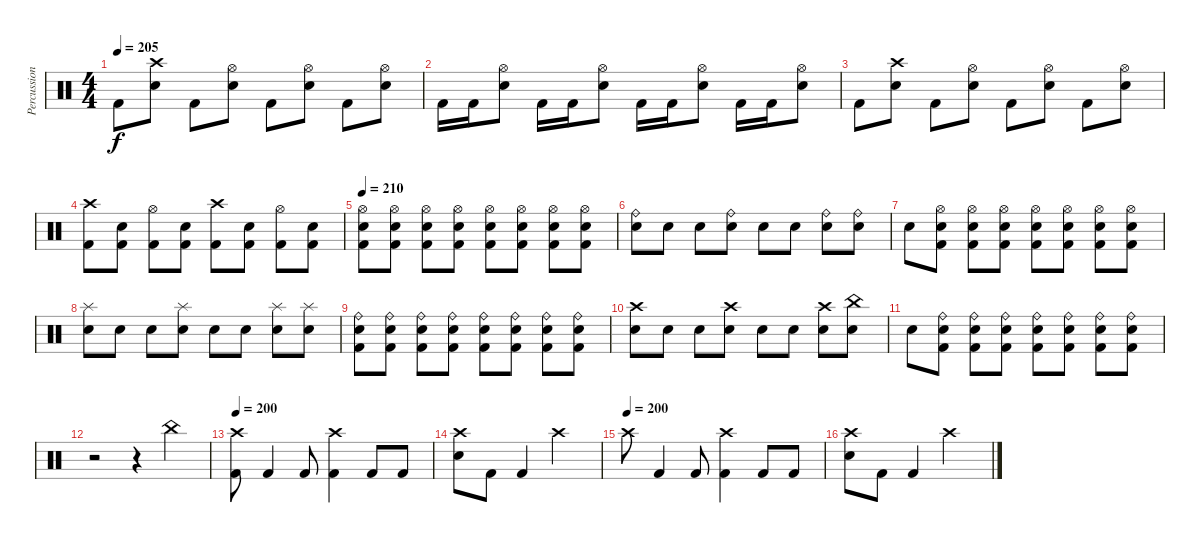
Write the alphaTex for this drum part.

\track ("Percussion" "Percussion") {instrument percussion}
\staff {score}
\articulation defaults
\ts (4 4)
\tempo 205
\clef neutral
\ks c "Kick (hit) 2".8{dy f}
("Crash high (hit)" "Electric Snare (hit)").8 "Kick (hit) 2".8 ("Hi-Hat (open)" "Electric Snare (hit)").8 "Kick (hit) 2".8 ("Hi-Hat (open)" "Electric Snare (hit)").8 "Kick (hit) 2".8 ("Hi-Hat (open)" "Electric Snare (hit)").8 |
"Kick (hit) 2".16 "Kick (hit) 2".16 ("Hi-Hat (open)" "Electric Snare (hit)").8 "Kick (hit) 2".16 "Kick (hit) 2".16 ("Hi-Hat (open)" "Electric Snare (hit)").8 "Kick (hit) 2".16 "Kick (hit) 2".16 ("Hi-Hat (open)" "Electric Snare (hit)").8 "Kick (hit) 2".16 "Kick (hit) 2".16 ("Hi-Hat (open)" "Electric Snare (hit)").8 |
"Kick (hit) 2".8 ("Crash high (hit)" "Electric Snare (hit)").8 "Kick (hit) 2".8 ("Hi-Hat (open)" "Electric Snare (hit)").8 "Kick (hit) 2".8 ("Hi-Hat (open)" "Electric Snare (hit)").8 "Kick (hit) 2".8 ("Hi-Hat (open)" "Electric Snare (hit)").8 |
("Crash high (hit)" "Kick (hit) 2").8 ("Electric Snare (hit)" "Kick (hit) 2").8 ("Hi-Hat (open)" "Kick (hit) 2").8 ("Electric Snare (hit)" "Kick (hit) 2").8 ("Crash high (hit)" "Kick (hit) 2").8 ("Electric Snare (hit)" "Kick (hit) 2").8 ("Hi-Hat (open)" "Kick (hit) 2").8 ("Electric Snare (hit)" "Kick (hit) 2").8 |
\tempo 210
("Hi-Hat (open)" "Electric Snare (hit)" "Kick (hit) 2").8 ("Hi-Hat (open)" "Electric Snare (hit)" "Kick (hit) 2").8 ("Hi-Hat (open)" "Electric Snare (hit)" "Kick (hit) 2").8 ("Hi-Hat (open)" "Electric Snare (hit)" "Kick (hit) 2").8 ("Hi-Hat (open)" "Electric Snare (hit)" "Kick (hit) 2").8 ("Hi-Hat (open)" "Electric Snare (hit)" "Kick (hit) 2").8 ("Hi-Hat (open)" "Electric Snare (hit)" "Kick (hit) 2").8 ("Hi-Hat (open)" "Electric Snare (hit)" "Kick (hit) 2").8 |
("Ride (bell)" "Electric Snare (hit)").8 "Electric Snare (hit)".8 "Electric Snare (hit)".8 ("Ride (bell)" "Electric Snare (hit)").8 "Electric Snare (hit)".8 "Electric Snare (hit)".8 ("Ride (bell)" "Electric Snare (hit)").8 ("Ride (bell)" "Electric Snare (hit)").8 |
"Electric Snare (hit)".8 ("Hi-Hat (open)" "Electric Snare (hit)" "Kick (hit) 2").8 ("Hi-Hat (open)" "Electric Snare (hit)" "Kick (hit) 2").8 ("Hi-Hat (open)" "Electric Snare (hit)" "Kick (hit) 2").8 ("Hi-Hat (open)" "Electric Snare (hit)" "Kick (hit) 2").8 ("Hi-Hat (open)" "Electric Snare (hit)" "Kick (hit) 2").8 ("Hi-Hat (open)" "Electric Snare (hit)" "Kick (hit) 2").8 ("Hi-Hat (open)" "Electric Snare (hit)" "Kick (hit) 2").8 |
("Splash (hit)" "Electric Snare (hit)").8 "Electric Snare (hit)".8 "Electric Snare (hit)".8 ("Splash (hit)" "Electric Snare (hit)").8 "Electric Snare (hit)".8 "Electric Snare (hit)".8 ("Splash (hit)" "Electric Snare (hit)").8 ("Splash (hit)" "Electric Snare (hit)").8 |
("Ride (bell)" "Electric Snare (hit)" "Kick (hit) 2").8 ("Ride (bell)" "Electric Snare (hit)" "Kick (hit) 2").8 ("Ride (bell)" "Electric Snare (hit)" "Kick (hit) 2").8 ("Ride (bell)" "Electric Snare (hit)" "Kick (hit) 2").8 ("Ride (bell)" "Electric Snare (hit)" "Kick (hit) 2").8 ("Ride (bell)" "Electric Snare (hit)" "Kick (hit) 2").8 ("Ride (bell)" "Electric Snare (hit)" "Kick (hit) 2").8 ("Ride (bell)" "Electric Snare (hit)" "Kick (hit) 2").8 |
("Crash high (hit)" "Electric Snare (hit)").8 "Electric Snare (hit)".8 "Electric Snare (hit)".8 ("Crash high (hit)" "Electric Snare (hit)").8 "Electric Snare (hit)".8 "Electric Snare (hit)".8 ("Crash high (hit)" "Electric Snare (hit)").8 ("China (hit)" "Electric Snare (hit)").8 |
"Electric Snare (hit)".8 ("Ride (bell)" "Electric Snare (hit)" "Kick (hit) 2").8 ("Ride (bell)" "Electric Snare (hit)" "Kick (hit) 2").8 ("Ride (bell)" "Electric Snare (hit)" "Kick (hit) 2").8 ("Ride (bell)" "Electric Snare (hit)" "Kick (hit) 2").8 ("Ride (bell)" "Electric Snare (hit)" "Kick (hit) 2").8 ("Ride (bell)" "Electric Snare (hit)" "Kick (hit) 2").8 ("Ride (bell)" "Electric Snare (hit)" "Kick (hit) 2").8 |
r.2 r.4 "China (hit)".4 |
\tempo 200
("Crash high (hit)" "Kick (hit) 2").8 "Kick (hit) 2".4 "Kick (hit) 2".8 ("Crash high (hit)" "Kick (hit) 2").4 "Kick (hit) 2".8 "Kick (hit) 2".8 |
("Crash high (hit)" "Electric Snare (hit)").8 "Kick (hit) 2".8 "Kick (hit) 2".4 "Crash high (hit)".2 |
\tempo (200)
"Crash high (hit)".8 "Kick (hit) 2".4 "Kick (hit) 2".8 ("Crash high (hit)" "Kick (hit) 2").4 "Kick (hit) 2".8 "Kick (hit) 2".8 |
("Crash high (hit)" "Electric Snare (hit)").8 "Kick (hit) 2".8 "Kick (hit) 2".4 "Crash high (hit)".2
